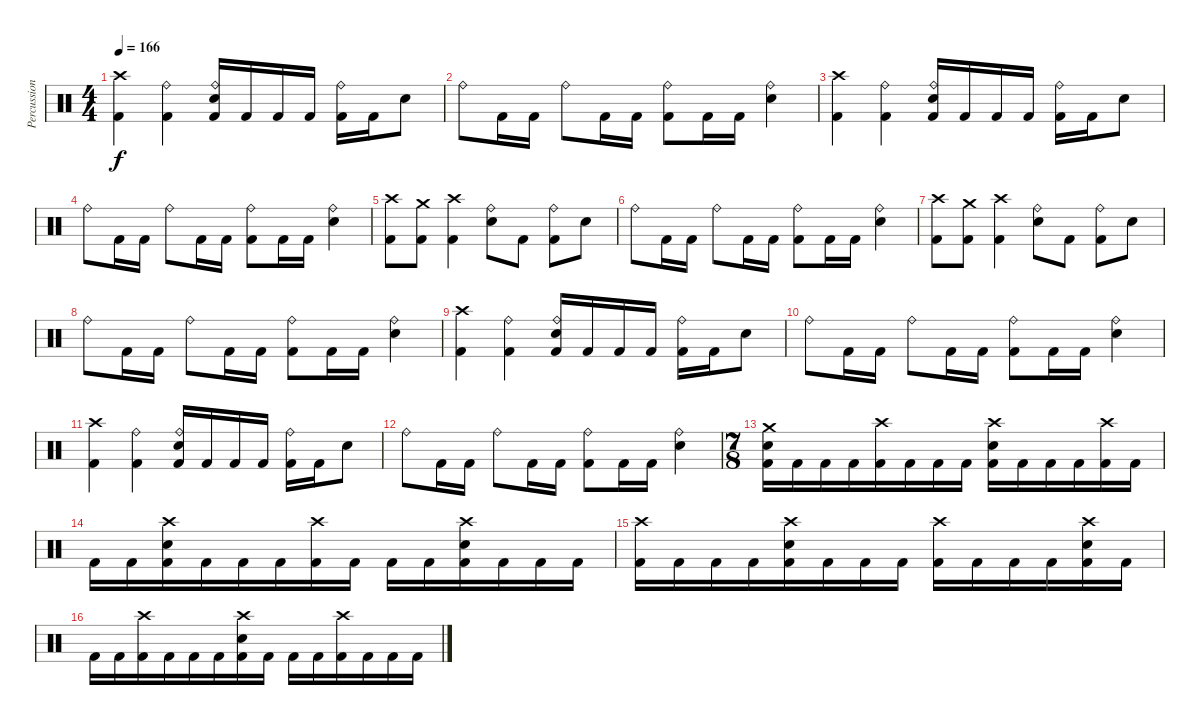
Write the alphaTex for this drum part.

\track ("Percussion" "Percussion") {instrument percussion}
\staff {score}
\articulation defaults
\ts (4 4)
\tempo 166
\clef neutral
\ks c
("Crash high (hit)" "Kick (hit) 2").4{dy f} ("Ride (bell)" "Kick (hit) 2").4 ("Ride (bell)" "Electric Snare (hit)" "Kick (hit) 2").16 "Kick (hit) 2".16 "Kick (hit) 2".16 "Kick (hit) 2".16 ("Ride (bell)" "Kick (hit) 2").16 "Kick (hit) 2".16 "Electric Snare (hit)".8 |
"Ride (bell)".8 "Kick (hit) 2".16 "Kick (hit) 2".16 "Ride (bell)".8 "Kick (hit) 2".16 "Kick (hit) 2".16 ("Ride (bell)" "Kick (hit) 2").8 "Kick (hit) 2".16 "Kick (hit) 2".16 ("Ride (bell)" "Electric Snare (hit)").4 |
("Crash high (hit)" "Kick (hit) 2").4 ("Ride (bell)" "Kick (hit) 2").4 ("Ride (bell)" "Electric Snare (hit)" "Kick (hit) 2").16 "Kick (hit) 2".16 "Kick (hit) 2".16 "Kick (hit) 2".16 ("Ride (bell)" "Kick (hit) 2").16 "Kick (hit) 2".16 "Electric Snare (hit)".8 |
"Ride (bell)".8 "Kick (hit) 2".16 "Kick (hit) 2".16 "Ride (bell)".8 "Kick (hit) 2".16 "Kick (hit) 2".16 ("Ride (bell)" "Kick (hit) 2").8 "Kick (hit) 2".16 "Kick (hit) 2".16 ("Ride (bell)" "Electric Snare (hit)").4 |
("Crash high (hit)" "Kick (hit) 2").8 ("Crash medium (hit)" "Kick (hit) 2").8 ("Crash high (hit)" "Kick (hit) 2").4 ("Ride (bell)" "Electric Snare (hit)").8 "Kick (hit) 2".8 ("Ride (bell)" "Kick (hit) 2").8 "Electric Snare (hit)".8 |
"Ride (bell)".8 "Kick (hit) 2".16 "Kick (hit) 2".16 "Ride (bell)".8 "Kick (hit) 2".16 "Kick (hit) 2".16 ("Ride (bell)" "Kick (hit) 2").8 "Kick (hit) 2".16 "Kick (hit) 2".16 ("Ride (bell)" "Electric Snare (hit)").4 |
("Crash high (hit)" "Kick (hit) 2").8 ("Crash medium (hit)" "Kick (hit) 2").8 ("Crash high (hit)" "Kick (hit) 2").4 ("Ride (bell)" "Electric Snare (hit)").8 "Kick (hit) 2".8 ("Ride (bell)" "Kick (hit) 2").8 "Electric Snare (hit)".8 |
"Ride (bell)".8 "Kick (hit) 2".16 "Kick (hit) 2".16 "Ride (bell)".8 "Kick (hit) 2".16 "Kick (hit) 2".16 ("Ride (bell)" "Kick (hit) 2").8 "Kick (hit) 2".16 "Kick (hit) 2".16 ("Ride (bell)" "Electric Snare (hit)").4 |
("Crash high (hit)" "Kick (hit) 2").4 ("Ride (bell)" "Kick (hit) 2").4 ("Ride (bell)" "Electric Snare (hit)" "Kick (hit) 2").16 "Kick (hit) 2".16 "Kick (hit) 2".16 "Kick (hit) 2".16 ("Ride (bell)" "Kick (hit) 2").16 "Kick (hit) 2".16 "Electric Snare (hit)".8 |
"Ride (bell)".8 "Kick (hit) 2".16 "Kick (hit) 2".16 "Ride (bell)".8 "Kick (hit) 2".16 "Kick (hit) 2".16 ("Ride (bell)" "Kick (hit) 2").8 "Kick (hit) 2".16 "Kick (hit) 2".16 ("Ride (bell)" "Electric Snare (hit)").4 |
("Crash high (hit)" "Kick (hit) 2").4 ("Ride (bell)" "Kick (hit) 2").4 ("Ride (bell)" "Electric Snare (hit)" "Kick (hit) 2").16 "Kick (hit) 2".16 "Kick (hit) 2".16 "Kick (hit) 2".16 ("Ride (bell)" "Kick (hit) 2").16 "Kick (hit) 2".16 "Electric Snare (hit)".8 |
"Ride (bell)".8 "Kick (hit) 2".16 "Kick (hit) 2".16 "Ride (bell)".8 "Kick (hit) 2".16 "Kick (hit) 2".16 ("Ride (bell)" "Kick (hit) 2").8 "Kick (hit) 2".16 "Kick (hit) 2".16 ("Ride (bell)" "Electric Snare (hit)").4 |
\ts (7 8)
("Crash medium (hit)" "Electric Snare (hit)" "Kick (hit) 2").16 "Kick (hit) 2".16 "Kick (hit) 2".16 "Kick (hit) 2".16 ("Crash high (hit)" "Kick (hit) 2").16 "Kick (hit) 2".16 "Kick (hit) 2".16 "Kick (hit) 2".16 ("Crash high (hit)" "Electric Snare (hit)" "Kick (hit) 2").16 "Kick (hit) 2".16 "Kick (hit) 2".16 "Kick (hit) 2".16 ("Crash high (hit)" "Kick (hit) 2").16 "Kick (hit) 2".16 |
"Kick (hit) 2".16 "Kick (hit) 2".16 ("Crash high (hit)" "Electric Snare (hit)" "Kick (hit) 2").16 "Kick (hit) 2".16 "Kick (hit) 2".16 "Kick (hit) 2".16 ("Crash high (hit)" "Kick (hit) 2").16 "Kick (hit) 2".16 "Kick (hit) 2".16 "Kick (hit) 2".16 ("Crash high (hit)" "Electric Snare (hit)" "Kick (hit) 2").16 "Kick (hit) 2".16 "Kick (hit) 2".16 "Kick (hit) 2".16 |
("Crash high (hit)" "Kick (hit) 2").16 "Kick (hit) 2".16 "Kick (hit) 2".16 "Kick (hit) 2".16 ("Crash high (hit)" "Electric Snare (hit)" "Kick (hit) 2").16 "Kick (hit) 2".16 "Kick (hit) 2".16 "Kick (hit) 2".16 ("Crash high (hit)" "Kick (hit) 2").16 "Kick (hit) 2".16 "Kick (hit) 2".16 "Kick (hit) 2".16 ("Crash high (hit)" "Electric Snare (hit)" "Kick (hit) 2").16 "Kick (hit) 2".16 |
"Kick (hit) 2".16 "Kick (hit) 2".16 ("Crash high (hit)" "Kick (hit) 2").16 "Kick (hit) 2".16 "Kick (hit) 2".16 "Kick (hit) 2".16 ("Crash high (hit)" "Electric Snare (hit)" "Kick (hit) 2").16 "Kick (hit) 2".16 "Kick (hit) 2".16 "Kick (hit) 2".16 ("Crash high (hit)" "Kick (hit) 2").16 "Kick (hit) 2".16 "Kick (hit) 2".16 "Kick (hit) 2".16
